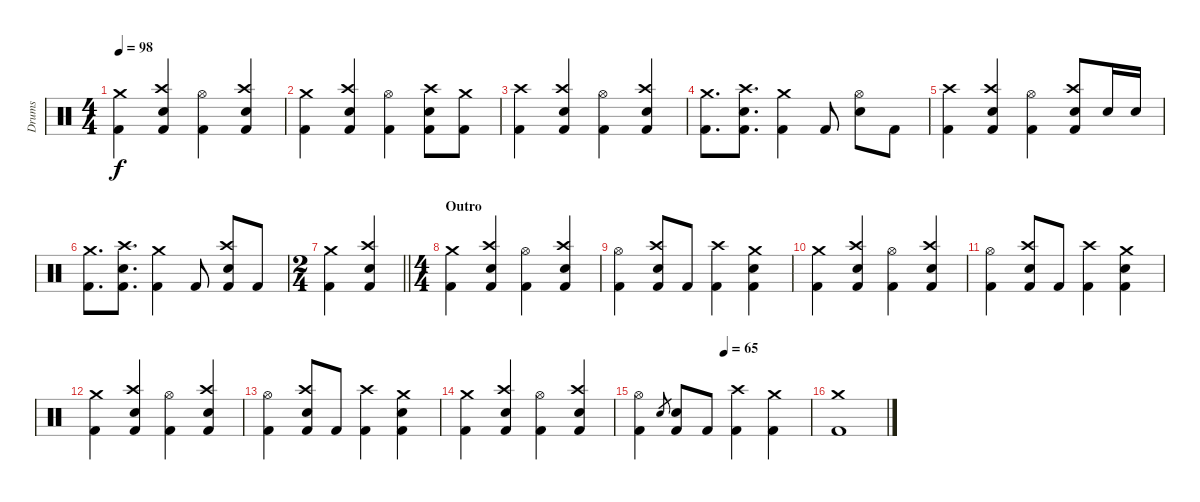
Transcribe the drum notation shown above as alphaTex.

\track ("Drums" "Drums") {instrument percussion}
\staff {score}
\articulation defaults
\ts (4 4)
\tempo 98
\clef neutral
\ks c
("Crash medium (hit)" "Kick (hit) 2").4{dy f} ("Crash high (hit)" "Electric Snare (hit)" "Kick (hit) 2").4 ("Hi-Hat (open)" "Kick (hit) 2").4 ("Crash high (hit)" "Electric Snare (hit)" "Kick (hit) 2").4 |
("Crash medium (hit)" "Kick (hit) 2").4 ("Crash high (hit)" "Electric Snare (hit)" "Kick (hit) 2").4 ("Hi-Hat (open)" "Kick (hit) 2").4 ("Crash high (hit)" "Electric Snare (hit)" "Kick (hit) 2").8 ("Crash medium (hit)" "Kick (hit) 2").8 |
("Crash high (hit)" "Kick (hit) 2").4 ("Crash high (hit)" "Electric Snare (hit)" "Kick (hit) 2").4 ("Hi-Hat (open)" "Kick (hit) 2").4 ("Crash high (hit)" "Electric Snare (hit)" "Kick (hit) 2").4 |
("Crash medium (hit)" "Kick (hit) 2").8{d} ("Crash high (hit)" "Electric Snare (hit)" "Kick (hit) 2").8{d} ("Crash medium (hit)" "Kick (hit) 2").4 "Kick (hit) 2".8 ("Hi-Hat (open)" "Electric Snare (hit)").8 "Kick (hit) 2".8 |
("Crash high (hit)" "Kick (hit) 2").4 ("Crash high (hit)" "Electric Snare (hit)" "Kick (hit) 2").4 ("Hi-Hat (open)" "Kick (hit) 2").4 ("Crash high (hit)" "Electric Snare (hit)" "Kick (hit) 2").8 "Electric Snare (hit)".16 "Electric Snare (hit)".16 |
("Crash medium (hit)" "Kick (hit) 2").8{d} ("Crash high (hit)" "Electric Snare (hit)" "Kick (hit) 2").8{d} ("Crash medium (hit)" "Kick (hit) 2").4 "Kick (hit) 2".8 ("Crash high (hit)" "Electric Snare (hit)" "Kick (hit) 2").8 "Kick (hit) 2".8 |
\ts (2 4)
\barLineRight lightlight
("Crash medium (hit)" "Kick (hit) 2").4 ("Crash high (hit)" "Electric Snare (hit)" "Kick (hit) 2").4 |
\ts (4 4)
\section ("" "Outro")
("Crash medium (hit)" "Kick (hit) 2").4 ("Crash high (hit)" "Electric Snare (hit)" "Kick (hit) 2").4 ("Hi-Hat (open)" "Kick (hit) 2").4 ("Crash high (hit)" "Electric Snare (hit)" "Kick (hit) 2").4 |
("Hi-Hat (open)" "Kick (hit) 2").4 ("Crash high (hit)" "Electric Snare (hit)" "Kick (hit) 2").8 "Kick (hit) 2".8 ("Crash high (hit)" "Kick (hit) 2").4 ("Crash medium (hit)" "Electric Snare (hit)" "Kick (hit) 2").4 |
("Crash medium (hit)" "Kick (hit) 2").4 ("Crash high (hit)" "Electric Snare (hit)" "Kick (hit) 2").4 ("Hi-Hat (open)" "Kick (hit) 2").4 ("Crash high (hit)" "Electric Snare (hit)" "Kick (hit) 2").4 |
("Hi-Hat (open)" "Kick (hit) 2").4 ("Crash high (hit)" "Electric Snare (hit)" "Kick (hit) 2").8 "Kick (hit) 2".8 ("Crash high (hit)" "Kick (hit) 2").4 ("Crash medium (hit)" "Electric Snare (hit)" "Kick (hit) 2").4 |
("Crash medium (hit)" "Kick (hit) 2").4 ("Crash high (hit)" "Electric Snare (hit)" "Kick (hit) 2").4 ("Hi-Hat (open)" "Kick (hit) 2").4 ("Crash high (hit)" "Electric Snare (hit)" "Kick (hit) 2").4 |
("Hi-Hat (open)" "Kick (hit) 2").4 ("Crash high (hit)" "Electric Snare (hit)" "Kick (hit) 2").8 "Kick (hit) 2".8 ("Crash high (hit)" "Kick (hit) 2").4 ("Crash medium (hit)" "Electric Snare (hit)" "Kick (hit) 2").4 |
("Crash medium (hit)" "Kick (hit) 2").4 ("Crash high (hit)" "Electric Snare (hit)" "Kick (hit) 2").4 ("Hi-Hat (open)" "Kick (hit) 2").4 ("Crash high (hit)" "Electric Snare (hit)" "Kick (hit) 2").4 |
\tempo (65 0.5)
("Hi-Hat (open)" "Kick (hit) 2").4 "Electric Snare (hit)".8{gr} ("Electric Snare (hit)" "Kick (hit) 2").8 "Kick (hit) 2".8 ("Crash high (hit)" "Kick (hit) 2").4 ("Crash medium (hit)" "Kick (hit) 2").4 |
("Crash medium (hit)" "Kick (hit) 2").1
